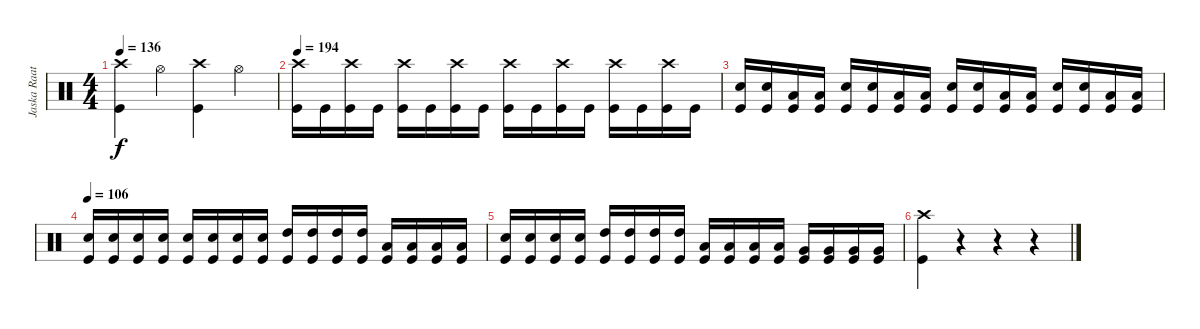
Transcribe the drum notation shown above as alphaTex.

\track ("Jaska Raatikainen" "Jaska Raat") {instrument percussion}
\staff {score}
\articulation defaults
\ts (4 4)
\tempo 136
\clef neutral
\ks c
("Crash high (hit)" "Kick (hit)").4{dy f} "Hi-Hat (open)".4 ("Crash high (hit)" "Kick (hit)").4 "Hi-Hat (open)".4 |
\tempo 194
("Crash high (hit)" "Kick (hit)").16 "Kick (hit)".16 ("Crash high (hit)" "Kick (hit)").16 "Kick (hit)".16 ("Crash high (hit)" "Kick (hit)").16 "Kick (hit)".16 ("Crash high (hit)" "Kick (hit)").16 "Kick (hit)".16 ("Crash high (hit)" "Kick (hit)").16 "Kick (hit)".16 ("Crash high (hit)" "Kick (hit)").16 "Kick (hit)".16 ("Crash high (hit)" "Kick (hit)").16 "Kick (hit)".16 ("Crash high (hit)" "Kick (hit)").16 "Kick (hit)".16 |
("Snare (hit) 2" "Kick (hit)").16 ("Snare (hit) 2" "Kick (hit)").16 ("Low Tom (hit)" "Kick (hit)").16 ("Low Tom (hit)" "Kick (hit)").16 ("Snare (hit) 2" "Kick (hit)").16 ("Snare (hit) 2" "Kick (hit)").16 ("Low Tom (hit)" "Kick (hit)").16 ("Low Tom (hit)" "Kick (hit)").16 ("Snare (hit) 2" "Kick (hit)").16 ("Snare (hit) 2" "Kick (hit)").16 ("Low Tom (hit)" "Kick (hit)").16 ("Low Tom (hit)" "Kick (hit)").16 ("Snare (hit) 2" "Kick (hit)").16 ("Snare (hit) 2" "Kick (hit)").16 ("Low Tom (hit)" "Kick (hit)").16 ("Low Tom (hit)" "Kick (hit)").16 |
\tempo 106
("Snare (hit) 2" "Kick (hit)").16 ("Snare (hit) 2" "Kick (hit)").16 ("Snare (hit) 2" "Kick (hit)").16 ("Snare (hit) 2" "Kick (hit)").16 ("Snare (hit) 2" "Kick (hit)").16 ("Snare (hit) 2" "Kick (hit)").16 ("Snare (hit) 2" "Kick (hit)").16 ("Snare (hit) 2" "Kick (hit)").16 ("High Tom (hit)" "Kick (hit)").16 ("High Tom (hit)" "Kick (hit)").16 ("High Tom (hit)" "Kick (hit)").16 ("High Tom (hit)" "Kick (hit)").16 ("Low Tom (hit)" "Kick (hit)").16 ("Low Tom (hit)" "Kick (hit)").16 ("Low Tom (hit)" "Kick (hit)").16 ("Low Tom (hit)" "Kick (hit)").16 |
("Snare (hit) 2" "Kick (hit)").16 ("Snare (hit) 2" "Kick (hit)").16 ("Snare (hit) 2" "Kick (hit)").16 ("Snare (hit) 2" "Kick (hit)").16 ("High Tom (hit)" "Kick (hit)").16 ("High Tom (hit)" "Kick (hit)").16 ("High Tom (hit)" "Kick (hit)").16 ("High Tom (hit)" "Kick (hit)").16 ("Low Tom (hit)" "Kick (hit)").16 ("Low Tom (hit)" "Kick (hit)").16 ("Low Tom (hit)" "Kick (hit)").16 ("Low Tom (hit)" "Kick (hit)").16 ("Very Low Tom (hit)" "Kick (hit)").16 ("Very Low Tom (hit)" "Kick (hit)").16 ("Very Low Tom (hit)" "Kick (hit)").16 ("Very Low Tom (hit)" "Kick (hit)").16 |
("Crash high (hit)" "Kick (hit)").4 r.4 r.4 r.4
